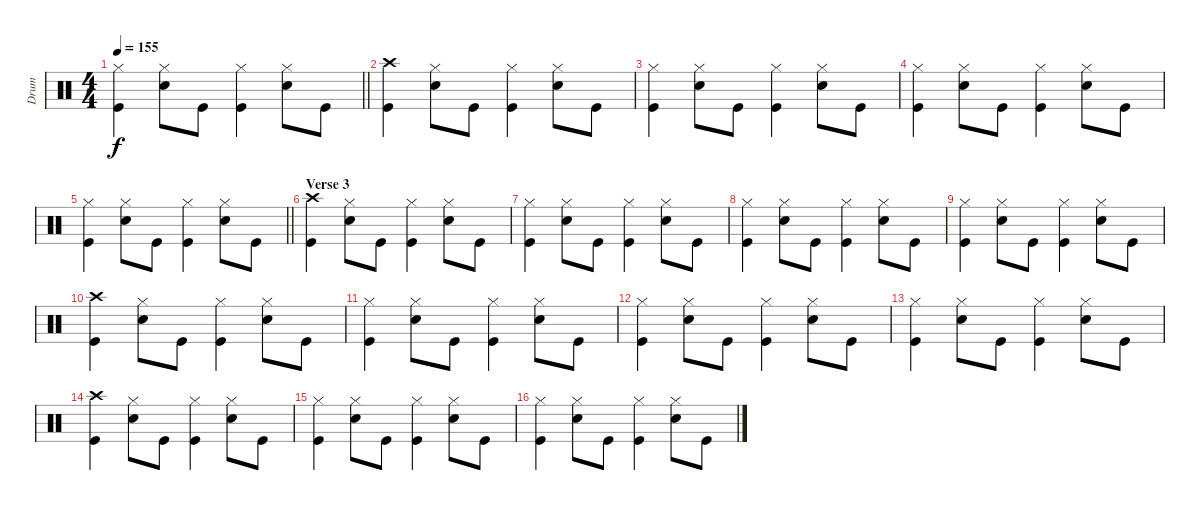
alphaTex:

\track ("Drum" "Drum") {instrument percussion}
\staff {score}
\articulation defaults
\ts (4 4)
\tempo 155
\clef neutral
\barLineRight lightlight
\ks c
("Kick (hit)" "Hi-Hat (closed)").4{dy f} ("Hi-Hat (closed)" "Snare (hit) 2").8 "Kick (hit)".8 ("Hi-Hat (closed)" "Kick (hit)").4 ("Snare (hit) 2" "Hi-Hat (closed)").8 "Kick (hit)".8 |
("Crash high (hit)" "Kick (hit)").4 ("Hi-Hat (closed)" "Snare (hit) 2").8 "Kick (hit)".8 ("Hi-Hat (closed)" "Kick (hit)").4 ("Snare (hit) 2" "Hi-Hat (closed)").8 "Kick (hit)".8 |
("Kick (hit)" "Hi-Hat (closed)").4 ("Hi-Hat (closed)" "Snare (hit) 2").8 "Kick (hit)".8 ("Hi-Hat (closed)" "Kick (hit)").4 ("Snare (hit) 2" "Hi-Hat (closed)").8 "Kick (hit)".8 |
("Kick (hit)" "Hi-Hat (closed)").4 ("Hi-Hat (closed)" "Snare (hit) 2").8 "Kick (hit)".8 ("Hi-Hat (closed)" "Kick (hit)").4 ("Snare (hit) 2" "Hi-Hat (closed)").8 "Kick (hit)".8 |
\barLineRight lightlight
("Kick (hit)" "Hi-Hat (closed)").4 ("Hi-Hat (closed)" "Snare (hit) 2").8 "Kick (hit)".8 ("Hi-Hat (closed)" "Kick (hit)").4 ("Snare (hit) 2" "Hi-Hat (closed)").8 "Kick (hit)".8 |
\section ("" "Verse 3")
("Crash high (hit)" "Kick (hit)").4 ("Hi-Hat (closed)" "Snare (hit) 2").8 "Kick (hit)".8 ("Hi-Hat (closed)" "Kick (hit)").4 ("Snare (hit) 2" "Hi-Hat (closed)").8 "Kick (hit)".8 |
("Kick (hit)" "Hi-Hat (closed)").4 ("Hi-Hat (closed)" "Snare (hit) 2").8 "Kick (hit)".8 ("Hi-Hat (closed)" "Kick (hit)").4 ("Snare (hit) 2" "Hi-Hat (closed)").8 "Kick (hit)".8 |
("Kick (hit)" "Hi-Hat (closed)").4 ("Hi-Hat (closed)" "Snare (hit) 2").8 "Kick (hit)".8 ("Hi-Hat (closed)" "Kick (hit)").4 ("Snare (hit) 2" "Hi-Hat (closed)").8 "Kick (hit)".8 |
("Kick (hit)" "Hi-Hat (closed)").4 ("Hi-Hat (closed)" "Snare (hit) 2").8 "Kick (hit)".8 ("Hi-Hat (closed)" "Kick (hit)").4 ("Snare (hit) 2" "Hi-Hat (closed)").8 "Kick (hit)".8 |
("Crash high (hit)" "Kick (hit)").4 ("Hi-Hat (closed)" "Snare (hit) 2").8 "Kick (hit)".8 ("Hi-Hat (closed)" "Kick (hit)").4 ("Snare (hit) 2" "Hi-Hat (closed)").8 "Kick (hit)".8 |
("Kick (hit)" "Hi-Hat (closed)").4 ("Hi-Hat (closed)" "Snare (hit) 2").8 "Kick (hit)".8 ("Hi-Hat (closed)" "Kick (hit)").4 ("Snare (hit) 2" "Hi-Hat (closed)").8 "Kick (hit)".8 |
("Kick (hit)" "Hi-Hat (closed)").4 ("Hi-Hat (closed)" "Snare (hit) 2").8 "Kick (hit)".8 ("Hi-Hat (closed)" "Kick (hit)").4 ("Snare (hit) 2" "Hi-Hat (closed)").8 "Kick (hit)".8 |
("Kick (hit)" "Hi-Hat (closed)").4 ("Hi-Hat (closed)" "Snare (hit) 2").8 "Kick (hit)".8 ("Hi-Hat (closed)" "Kick (hit)").4 ("Snare (hit) 2" "Hi-Hat (closed)").8 "Kick (hit)".8 |
("Crash high (hit)" "Kick (hit)").4 ("Hi-Hat (closed)" "Snare (hit) 2").8 "Kick (hit)".8 ("Hi-Hat (closed)" "Kick (hit)").4 ("Snare (hit) 2" "Hi-Hat (closed)").8 "Kick (hit)".8 |
("Kick (hit)" "Hi-Hat (closed)").4 ("Hi-Hat (closed)" "Snare (hit) 2").8 "Kick (hit)".8 ("Hi-Hat (closed)" "Kick (hit)").4 ("Snare (hit) 2" "Hi-Hat (closed)").8 "Kick (hit)".8 |
("Kick (hit)" "Hi-Hat (closed)").4 ("Hi-Hat (closed)" "Snare (hit) 2").8 "Kick (hit)".8 ("Hi-Hat (closed)" "Kick (hit)").4 ("Snare (hit) 2" "Hi-Hat (closed)").8 "Kick (hit)".8
